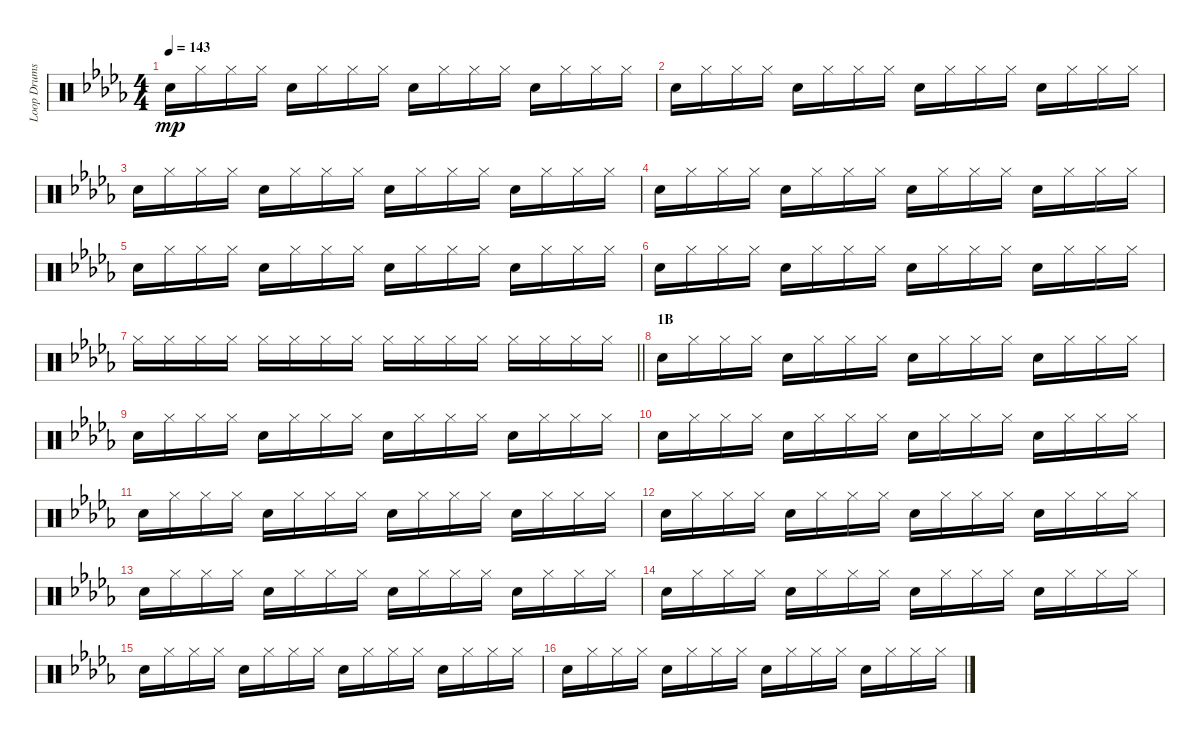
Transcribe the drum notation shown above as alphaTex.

\track ("Loop Drums" "Loop Drums") {instrument percussion}
\staff {score}
\articulation defaults
\ts (4 4)
\tempo 143
\clef neutral
\ks db "Electric Snare (hit)".16{dy mp} "Hi-Hat (closed)".16 "Hi-Hat (closed)".16 "Hi-Hat (closed)".16 "Electric Snare (hit)".16 "Hi-Hat (closed)".16 "Hi-Hat (closed)".16 "Hi-Hat (closed)".16 "Electric Snare (hit)".16 "Hi-Hat (closed)".16 "Hi-Hat (closed)".16 "Hi-Hat (closed)".16 "Electric Snare (hit)".16 "Hi-Hat (closed)".16 "Hi-Hat (closed)".16 "Hi-Hat (closed)".16
|
"Electric Snare (hit)".16 "Hi-Hat (closed)".16 "Hi-Hat (closed)".16 "Hi-Hat (closed)".16 "Electric Snare (hit)".16 "Hi-Hat (closed)".16 "Hi-Hat (closed)".16 "Hi-Hat (closed)".16 "Electric Snare (hit)".16 "Hi-Hat (closed)".16 "Hi-Hat (closed)".16 "Hi-Hat (closed)".16 "Electric Snare (hit)".16 "Hi-Hat (closed)".16 "Hi-Hat (closed)".16 "Hi-Hat (closed)".16 |
"Electric Snare (hit)".16 "Hi-Hat (closed)".16 "Hi-Hat (closed)".16 "Hi-Hat (closed)".16 "Electric Snare (hit)".16 "Hi-Hat (closed)".16 "Hi-Hat (closed)".16 "Hi-Hat (closed)".16 "Electric Snare (hit)".16 "Hi-Hat (closed)".16 "Hi-Hat (closed)".16 "Hi-Hat (closed)".16 "Electric Snare (hit)".16 "Hi-Hat (closed)".16 "Hi-Hat (closed)".16 "Hi-Hat (closed)".16 |
"Electric Snare (hit)".16 "Hi-Hat (closed)".16 "Hi-Hat (closed)".16 "Hi-Hat (closed)".16 "Electric Snare (hit)".16 "Hi-Hat (closed)".16 "Hi-Hat (closed)".16 "Hi-Hat (closed)".16 "Electric Snare (hit)".16 "Hi-Hat (closed)".16 "Hi-Hat (closed)".16 "Hi-Hat (closed)".16 "Electric Snare (hit)".16 "Hi-Hat (closed)".16 "Hi-Hat (closed)".16 "Hi-Hat (closed)".16 |
"Electric Snare (hit)".16 "Hi-Hat (closed)".16 "Hi-Hat (closed)".16 "Hi-Hat (closed)".16 "Electric Snare (hit)".16 "Hi-Hat (closed)".16 "Hi-Hat (closed)".16 "Hi-Hat (closed)".16 "Electric Snare (hit)".16 "Hi-Hat (closed)".16 "Hi-Hat (closed)".16 "Hi-Hat (closed)".16 "Electric Snare (hit)".16 "Hi-Hat (closed)".16 "Hi-Hat (closed)".16 "Hi-Hat (closed)".16 |
"Electric Snare (hit)".16 "Hi-Hat (closed)".16 "Hi-Hat (closed)".16 "Hi-Hat (closed)".16 "Electric Snare (hit)".16 "Hi-Hat (closed)".16 "Hi-Hat (closed)".16 "Hi-Hat (closed)".16 "Electric Snare (hit)".16 "Hi-Hat (closed)".16 "Hi-Hat (closed)".16 "Hi-Hat (closed)".16 "Electric Snare (hit)".16 "Hi-Hat (closed)".16 "Hi-Hat (closed)".16 "Hi-Hat (closed)".16 |
\barLineRight lightlight "Hi-Hat (closed)".16 "Hi-Hat (closed)".16 "Hi-Hat (closed)".16 "Hi-Hat (closed)".16 "Hi-Hat (closed)".16 "Hi-Hat (closed)".16 "Hi-Hat (closed)".16 "Hi-Hat (closed)".16 "Hi-Hat (closed)".16 "Hi-Hat (closed)".16 "Hi-Hat (closed)".16 "Hi-Hat (closed)".16 "Hi-Hat (closed)".16 "Hi-Hat (closed)".16 "Hi-Hat (closed)".16 "Hi-Hat (closed)".16
|
\section ("" "1B")
"Electric Snare (hit)".16 "Hi-Hat (closed)".16 "Hi-Hat (closed)".16 "Hi-Hat (closed)".16 "Electric Snare (hit)".16 "Hi-Hat (closed)".16 "Hi-Hat (closed)".16 "Hi-Hat (closed)".16 "Electric Snare (hit)".16 "Hi-Hat (closed)".16 "Hi-Hat (closed)".16 "Hi-Hat (closed)".16 "Electric Snare (hit)".16 "Hi-Hat (closed)".16 "Hi-Hat (closed)".16 "Hi-Hat (closed)".16 |
"Electric Snare (hit)".16 "Hi-Hat (closed)".16 "Hi-Hat (closed)".16 "Hi-Hat (closed)".16 "Electric Snare (hit)".16 "Hi-Hat (closed)".16 "Hi-Hat (closed)".16 "Hi-Hat (closed)".16 "Electric Snare (hit)".16 "Hi-Hat (closed)".16 "Hi-Hat (closed)".16 "Hi-Hat (closed)".16 "Electric Snare (hit)".16 "Hi-Hat (closed)".16 "Hi-Hat (closed)".16 "Hi-Hat (closed)".16 |
"Electric Snare (hit)".16 "Hi-Hat (closed)".16 "Hi-Hat (closed)".16 "Hi-Hat (closed)".16 "Electric Snare (hit)".16 "Hi-Hat (closed)".16 "Hi-Hat (closed)".16 "Hi-Hat (closed)".16 "Electric Snare (hit)".16 "Hi-Hat (closed)".16 "Hi-Hat (closed)".16 "Hi-Hat (closed)".16 "Electric Snare (hit)".16 "Hi-Hat (closed)".16 "Hi-Hat (closed)".16 "Hi-Hat (closed)".16 |
"Electric Snare (hit)".16 "Hi-Hat (closed)".16 "Hi-Hat (closed)".16 "Hi-Hat (closed)".16 "Electric Snare (hit)".16 "Hi-Hat (closed)".16 "Hi-Hat (closed)".16 "Hi-Hat (closed)".16 "Electric Snare (hit)".16 "Hi-Hat (closed)".16 "Hi-Hat (closed)".16 "Hi-Hat (closed)".16 "Electric Snare (hit)".16 "Hi-Hat (closed)".16 "Hi-Hat (closed)".16 "Hi-Hat (closed)".16 |
"Electric Snare (hit)".16 "Hi-Hat (closed)".16 "Hi-Hat (closed)".16 "Hi-Hat (closed)".16 "Electric Snare (hit)".16 "Hi-Hat (closed)".16 "Hi-Hat (closed)".16 "Hi-Hat (closed)".16 "Electric Snare (hit)".16 "Hi-Hat (closed)".16 "Hi-Hat (closed)".16 "Hi-Hat (closed)".16 "Electric Snare (hit)".16 "Hi-Hat (closed)".16 "Hi-Hat (closed)".16 "Hi-Hat (closed)".16 |
"Electric Snare (hit)".16 "Hi-Hat (closed)".16 "Hi-Hat (closed)".16 "Hi-Hat (closed)".16 "Electric Snare (hit)".16 "Hi-Hat (closed)".16 "Hi-Hat (closed)".16 "Hi-Hat (closed)".16 "Electric Snare (hit)".16 "Hi-Hat (closed)".16 "Hi-Hat (closed)".16 "Hi-Hat (closed)".16 "Electric Snare (hit)".16 "Hi-Hat (closed)".16 "Hi-Hat (closed)".16 "Hi-Hat (closed)".16 |
"Electric Snare (hit)".16 "Hi-Hat (closed)".16 "Hi-Hat (closed)".16 "Hi-Hat (closed)".16 "Electric Snare (hit)".16 "Hi-Hat (closed)".16 "Hi-Hat (closed)".16 "Hi-Hat (closed)".16 "Electric Snare (hit)".16 "Hi-Hat (closed)".16 "Hi-Hat (closed)".16 "Hi-Hat (closed)".16 "Electric Snare (hit)".16 "Hi-Hat (closed)".16 "Hi-Hat (closed)".16 "Hi-Hat (closed)".16 |
"Electric Snare (hit)".16 "Hi-Hat (closed)".16 "Hi-Hat (closed)".16 "Hi-Hat (closed)".16 "Electric Snare (hit)".16 "Hi-Hat (closed)".16 "Hi-Hat (closed)".16 "Hi-Hat (closed)".16 "Electric Snare (hit)".16 "Hi-Hat (closed)".16 "Hi-Hat (closed)".16 "Hi-Hat (closed)".16 "Electric Snare (hit)".16 "Hi-Hat (closed)".16 "Hi-Hat (closed)".16 "Hi-Hat (closed)".16 |
"Electric Snare (hit)".16 "Hi-Hat (closed)".16 "Hi-Hat (closed)".16 "Hi-Hat (closed)".16 "Electric Snare (hit)".16 "Hi-Hat (closed)".16 "Hi-Hat (closed)".16 "Hi-Hat (closed)".16 "Electric Snare (hit)".16 "Hi-Hat (closed)".16 "Hi-Hat (closed)".16 "Hi-Hat (closed)".16 "Electric Snare (hit)".16 "Hi-Hat (closed)".16 "Hi-Hat (closed)".16 "Hi-Hat (closed)".16
